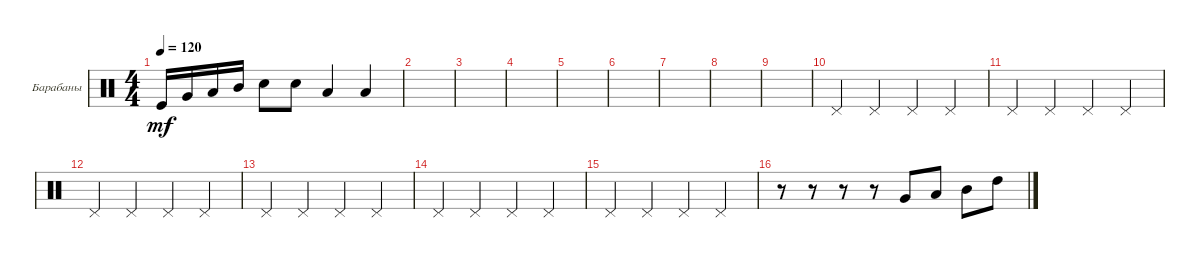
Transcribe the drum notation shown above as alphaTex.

\defaultSystemsLayout 4
\bracketExtendMode groupsimilarinstruments
\firstSystemTrackNameOrientation horizontal
\otherSystemsTrackNameOrientation horizontal
\track ("Ударная установка" "Барабаны") {instrument percussion}
\staff {score}
\articulation defaults
\ts (4 4)
\tempo 120
\clef neutral
\ks c "Kick (hit)".16{dy mf} "Very Low Tom (hit)".16 "Low Tom (hit)".16 "Mid Tom (hit)".16 "Snare (hit) 2".8 "Snare (hit) 2".8 "Low Tom (hit)".4 "Low Tom (hit)".4
|
|
|
|
|
|
|
|
|
"Pedal Hi-Hat (hit)".4 "Pedal Hi-Hat (hit)".4 "Pedal Hi-Hat (hit)".4 "Pedal Hi-Hat (hit)".4 |
"Pedal Hi-Hat (hit)".4 "Pedal Hi-Hat (hit)".4 "Pedal Hi-Hat (hit)".4 "Pedal Hi-Hat (hit)".4 |
"Pedal Hi-Hat (hit)".4 "Pedal Hi-Hat (hit)".4 "Pedal Hi-Hat (hit)".4 "Pedal Hi-Hat (hit)".4 |
"Pedal Hi-Hat (hit)".4 "Pedal Hi-Hat (hit)".4 "Pedal Hi-Hat (hit)".4 "Pedal Hi-Hat (hit)".4 |
"Pedal Hi-Hat (hit)".4 "Pedal Hi-Hat (hit)".4 "Pedal Hi-Hat (hit)".4 "Pedal Hi-Hat (hit)".4 |
"Pedal Hi-Hat (hit)".4 "Pedal Hi-Hat (hit)".4 "Pedal Hi-Hat (hit)".4 "Pedal Hi-Hat (hit)".4 |
r.8 r.8 r.8 r.8 "Very Low Tom (hit)".8 "Low Tom (hit)".8 "Mid Tom (hit)".8 "High Tom (hit)".8
